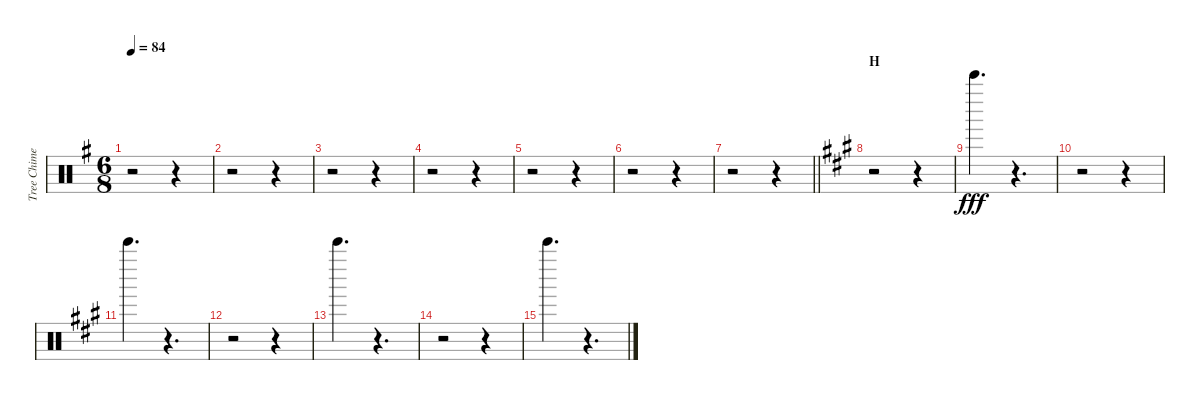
\track ("Tree Chime" "Tree Chime") {instrument percussion}
\staff {score}
\articulation defaults
\ts (6 8)
\tempo 84
\clef neutral
\ks g
r.2{dy fff} r.4 |
r.2 r.4 |
r.2 r.4 |
r.2 r.4 |
r.2 r.4 |
r.2 r.4 |
\barLineRight lightlight
r.2 r.4 |
\section ("" "H")
\ks a
r.2 r.4 |
"Bell Tree (hit)".4{d} r.4{d} |
r.2 r.4 |
"Bell Tree (hit)".4{d} r.4{d} |
r.2 r.4 |
"Bell Tree (hit)".4{d} r.4{d} |
r.2 r.4 |
"Bell Tree (hit)".4{d} r.4{d}
